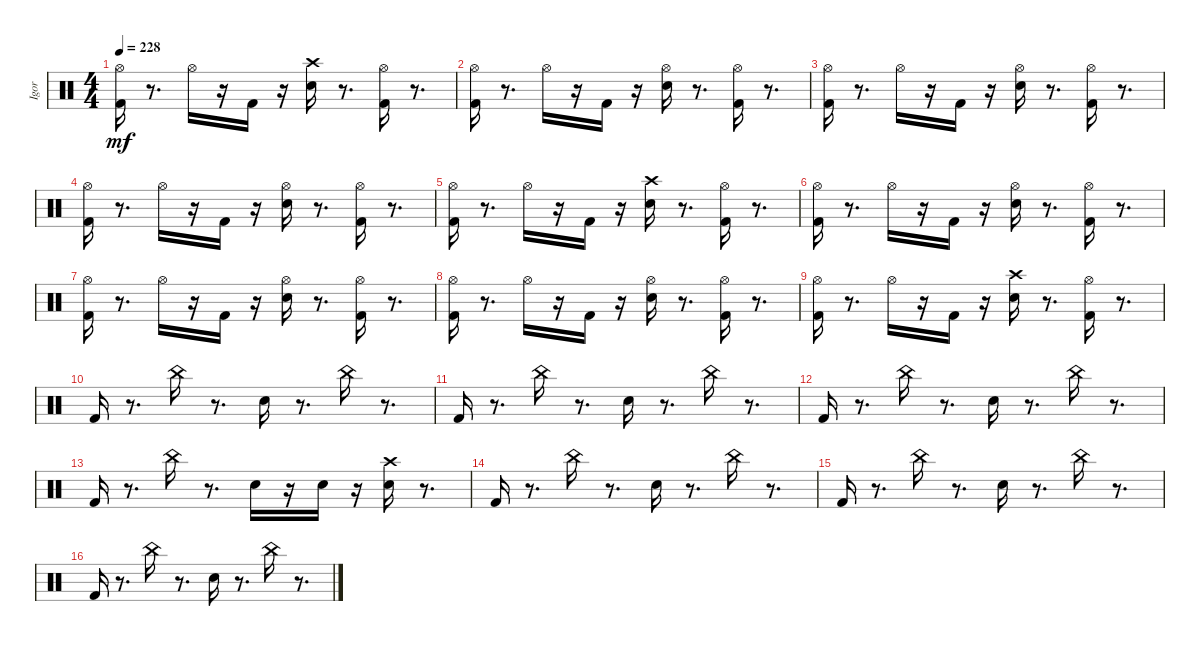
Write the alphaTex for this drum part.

\track ("Igor" "Igor") {instrument percussion}
\staff {score}
\articulation defaults
\ts (4 4)
\tempo 228
\clef neutral
\ks c
("Kick (hit) 2" "Hi-Hat (open)").16{dy mf} r.8{d} "Hi-Hat (open)".16 r.16 "Kick (hit) 2".16 r.16 ("Snare (hit) 2" "Crash high (hit)").16 r.8{d} ("Kick (hit) 2" "Hi-Hat (open)").16 r.8{d} |
("Kick (hit) 2" "Hi-Hat (open)").16 r.8{d} "Hi-Hat (open)".16 r.16 "Kick (hit) 2".16 r.16 ("Snare (hit) 2" "Hi-Hat (open)").16 r.8{d} ("Kick (hit) 2" "Hi-Hat (open)").16 r.8{d} |
("Kick (hit) 2" "Hi-Hat (open)").16 r.8{d} "Hi-Hat (open)".16 r.16 "Kick (hit) 2".16 r.16 ("Snare (hit) 2" "Hi-Hat (open)").16 r.8{d} ("Kick (hit) 2" "Hi-Hat (open)").16 r.8{d} |
("Kick (hit) 2" "Hi-Hat (open)").16 r.8{d} "Hi-Hat (open)".16 r.16 "Kick (hit) 2".16 r.16 ("Snare (hit) 2" "Hi-Hat (open)").16 r.8{d} ("Kick (hit) 2" "Hi-Hat (open)").16 r.8{d} |
("Kick (hit) 2" "Hi-Hat (open)").16 r.8{d} "Hi-Hat (open)".16 r.16 "Kick (hit) 2".16 r.16 ("Snare (hit) 2" "Crash high (hit)").16 r.8{d} ("Kick (hit) 2" "Hi-Hat (open)").16 r.8{d} |
("Kick (hit) 2" "Hi-Hat (open)").16 r.8{d} "Hi-Hat (open)".16 r.16 "Kick (hit) 2".16 r.16 ("Snare (hit) 2" "Hi-Hat (open)").16 r.8{d} ("Kick (hit) 2" "Hi-Hat (open)").16 r.8{d} |
("Kick (hit) 2" "Hi-Hat (open)").16 r.8{d} "Hi-Hat (open)".16 r.16 "Kick (hit) 2".16 r.16 ("Snare (hit) 2" "Hi-Hat (open)").16 r.8{d} ("Kick (hit) 2" "Hi-Hat (open)").16 r.8{d} |
("Kick (hit) 2" "Hi-Hat (open)").16 r.8{d} "Hi-Hat (open)".16 r.16 "Kick (hit) 2".16 r.16 ("Snare (hit) 2" "Hi-Hat (open)").16 r.8{d} ("Kick (hit) 2" "Hi-Hat (open)").16 r.8{d} |
("Kick (hit) 2" "Hi-Hat (open)").16 r.8{d} "Hi-Hat (open)".16 r.16 "Kick (hit) 2".16 r.16 ("Snare (hit) 2" "Crash high (hit)").16 r.8{d} ("Kick (hit) 2" "Hi-Hat (open)").16 r.8{d} |
"Kick (hit) 2".16 r.8{d} "China (hit)".16 r.8{d} "Snare (hit) 2".16 r.8{d} "China (hit)".16 r.8{d} |
"Kick (hit) 2".16 r.8{d} "China (hit)".16 r.8{d} "Snare (hit) 2".16 r.8{d} "China (hit)".16 r.8{d} |
"Kick (hit) 2".16 r.8{d} "China (hit)".16 r.8{d} "Snare (hit) 2".16 r.8{d} "China (hit)".16 r.8{d} |
"Kick (hit) 2".16 r.8{d} "China (hit)".16 r.8{d} "Snare (hit) 2".16 r.16 "Snare (hit) 2".16 r.16 ("Crash high (hit)" "Snare (hit) 2").16 r.8{d} |
"Kick (hit) 2".16 r.8{d} "China (hit)".16 r.8{d} "Snare (hit) 2".16 r.8{d} "China (hit)".16 r.8{d} |
"Kick (hit) 2".16 r.8{d} "China (hit)".16 r.8{d} "Snare (hit) 2".16 r.8{d} "China (hit)".16 r.8{d} |
"Kick (hit) 2".16 r.8{d} "China (hit)".16 r.8{d} "Snare (hit) 2".16 r.8{d} "China (hit)".16 r.8{d}
